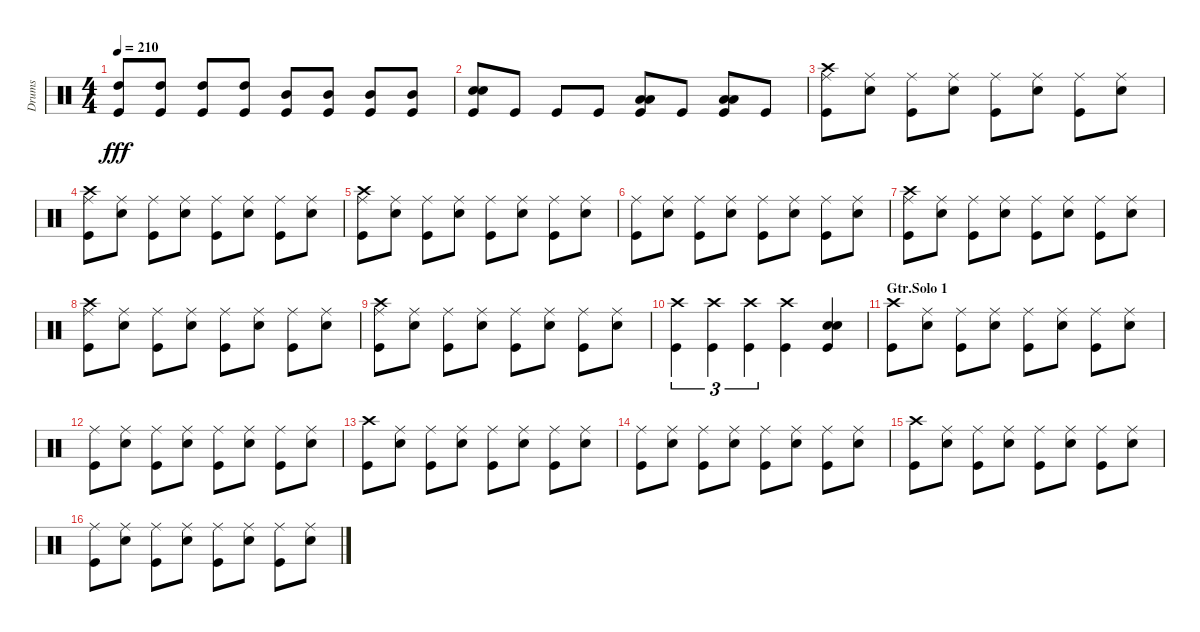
\track ("Drums" "Drums") {instrument percussion}
\staff {score}
\articulation defaults
\ts (4 4)
\tempo 210
\clef neutral
\ks c
("High Tom (hit)" "Kick (hit)").8{dy fff} ("High Tom (hit)" "Kick (hit)").8 ("High Tom (hit)" "Kick (hit)").8 ("High Tom (hit)" "Kick (hit)").8 ("Mid Tom (hit)" "Kick (hit)").8 ("Mid Tom (hit)" "Kick (hit)").8 ("Mid Tom (hit)" "Kick (hit)").8 ("Mid Tom (hit)" "Kick (hit)").8 |
("Snare (hit) 2" "Snare (hit) 2" "Kick (hit)").8 "Kick (hit)".8 "Kick (hit)".8 "Kick (hit)".8 ("Low Tom (hit)" "Low Tom (hit)" "Kick (hit)").8 "Kick (hit)".8 ("Low Tom (hit)" "Low Tom (hit)" "Kick (hit)").8 "Kick (hit)".8 |
("Ride (middle)" "Crash high (hit)" "Kick (hit)").8 ("Ride (middle)" "Snare (hit) 2").8 ("Ride (middle)" "Kick (hit)").8 ("Ride (middle)" "Snare (hit) 2").8 ("Ride (middle)" "Kick (hit)").8 ("Ride (middle)" "Snare (hit) 2").8 ("Ride (middle)" "Kick (hit)").8 ("Ride (middle)" "Snare (hit) 2").8 |
("Ride (middle)" "Crash high (hit)" "Kick (hit)").8 ("Ride (middle)" "Snare (hit) 2").8 ("Ride (middle)" "Kick (hit)").8 ("Ride (middle)" "Snare (hit) 2").8 ("Ride (middle)" "Kick (hit)").8 ("Ride (middle)" "Snare (hit) 2").8 ("Ride (middle)" "Kick (hit)").8 ("Ride (middle)" "Snare (hit) 2").8 |
("Ride (middle)" "Crash high (hit)" "Kick (hit)").8 ("Ride (middle)" "Snare (hit) 2").8 ("Ride (middle)" "Kick (hit)").8 ("Ride (middle)" "Snare (hit) 2").8 ("Ride (middle)" "Kick (hit)").8 ("Ride (middle)" "Snare (hit) 2").8 ("Ride (middle)" "Kick (hit)").8 ("Ride (middle)" "Snare (hit) 2").8 |
("Ride (middle)" "Kick (hit)").8 ("Ride (middle)" "Snare (hit) 2").8 ("Ride (middle)" "Kick (hit)").8 ("Ride (middle)" "Snare (hit) 2").8 ("Ride (middle)" "Kick (hit)").8 ("Ride (middle)" "Snare (hit) 2").8 ("Ride (middle)" "Kick (hit)").8 ("Ride (middle)" "Snare (hit) 2").8 |
("Ride (middle)" "Crash high (hit)" "Kick (hit)").8 ("Ride (middle)" "Snare (hit) 2").8 ("Ride (middle)" "Kick (hit)").8 ("Ride (middle)" "Snare (hit) 2").8 ("Ride (middle)" "Kick (hit)").8 ("Ride (middle)" "Snare (hit) 2").8 ("Ride (middle)" "Kick (hit)").8 ("Ride (middle)" "Snare (hit) 2").8 |
("Ride (middle)" "Crash high (hit)" "Kick (hit)").8 ("Ride (middle)" "Snare (hit) 2").8 ("Ride (middle)" "Kick (hit)").8 ("Ride (middle)" "Snare (hit) 2").8 ("Ride (middle)" "Kick (hit)").8 ("Ride (middle)" "Snare (hit) 2").8 ("Ride (middle)" "Kick (hit)").8 ("Ride (middle)" "Snare (hit) 2").8 |
("Ride (middle)" "Crash high (hit)" "Kick (hit)").8 ("Ride (middle)" "Snare (hit) 2").8 ("Ride (middle)" "Kick (hit)").8 ("Ride (middle)" "Snare (hit) 2").8 ("Ride (middle)" "Kick (hit)").8 ("Ride (middle)" "Snare (hit) 2").8 ("Ride (middle)" "Kick (hit)").8 ("Ride (middle)" "Snare (hit) 2").8 |
("Crash high (hit)" "Kick (hit)").4{tu (3 2)} ("Crash high (hit)" "Kick (hit)").4{tu (3 2)} ("Crash high (hit)" "Kick (hit)").4{tu (3 2)} ("Crash high (hit)" "Kick (hit)").4 ("Snare (hit) 2" "Snare (hit) 2" "Kick (hit)").4 |
\section ("" "Gtr.Solo 1")
("Crash high (hit)" "Kick (hit)").8 ("Ride (middle)" "Snare (hit) 2").8 ("Ride (middle)" "Kick (hit)").8 ("Ride (middle)" "Snare (hit) 2").8 ("Ride (middle)" "Kick (hit)").8 ("Ride (middle)" "Snare (hit) 2").8 ("Ride (middle)" "Kick (hit)").8 ("Ride (middle)" "Snare (hit) 2").8 |
("Ride (middle)" "Kick (hit)").8 ("Ride (middle)" "Snare (hit) 2").8 ("Ride (middle)" "Kick (hit)").8 ("Ride (middle)" "Snare (hit) 2").8 ("Ride (middle)" "Kick (hit)").8 ("Ride (middle)" "Snare (hit) 2").8 ("Ride (middle)" "Kick (hit)").8 ("Ride (middle)" "Snare (hit) 2").8 |
("Crash high (hit)" "Kick (hit)").8 ("Ride (middle)" "Snare (hit) 2").8 ("Ride (middle)" "Kick (hit)").8 ("Ride (middle)" "Snare (hit) 2").8 ("Ride (middle)" "Kick (hit)").8 ("Ride (middle)" "Snare (hit) 2").8 ("Ride (middle)" "Kick (hit)").8 ("Ride (middle)" "Snare (hit) 2").8 |
("Ride (middle)" "Kick (hit)").8 ("Ride (middle)" "Snare (hit) 2").8 ("Ride (middle)" "Kick (hit)").8 ("Ride (middle)" "Snare (hit) 2").8 ("Ride (middle)" "Kick (hit)").8 ("Ride (middle)" "Snare (hit) 2").8 ("Ride (middle)" "Kick (hit)").8 ("Ride (middle)" "Snare (hit) 2").8 |
("Crash high (hit)" "Kick (hit)").8 ("Ride (middle)" "Snare (hit) 2").8 ("Ride (middle)" "Kick (hit)").8 ("Ride (middle)" "Snare (hit) 2").8 ("Ride (middle)" "Kick (hit)").8 ("Ride (middle)" "Snare (hit) 2").8 ("Ride (middle)" "Kick (hit)").8 ("Ride (middle)" "Snare (hit) 2").8 |
("Ride (middle)" "Kick (hit)").8 ("Ride (middle)" "Snare (hit) 2").8 ("Ride (middle)" "Kick (hit)").8 ("Ride (middle)" "Snare (hit) 2").8 ("Ride (middle)" "Kick (hit)").8 ("Ride (middle)" "Snare (hit) 2").8 ("Ride (middle)" "Kick (hit)").8 ("Ride (middle)" "Snare (hit) 2").8
